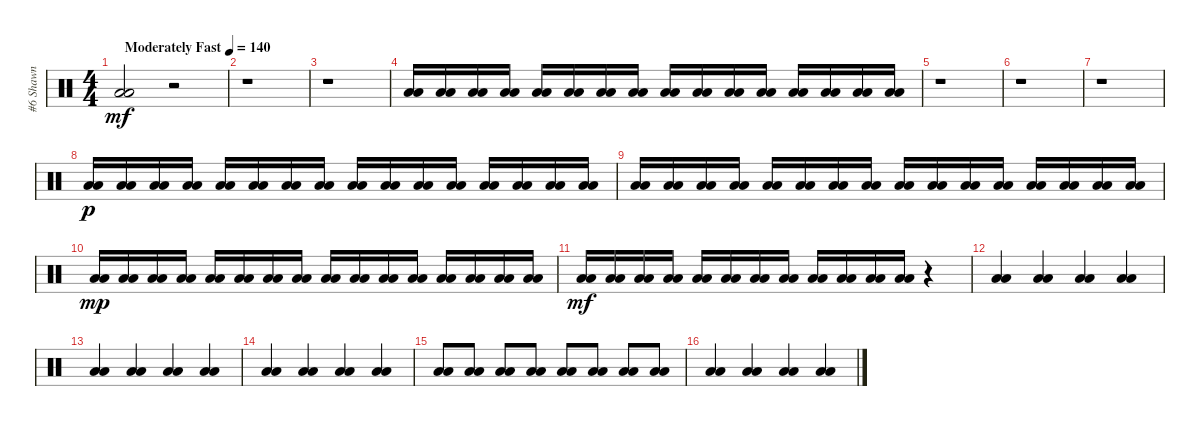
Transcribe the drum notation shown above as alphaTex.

\track ("#6 Shawn" "#6 Shawn") {solo instrument percussion}
\staff {score}
\articulation defaults
\ts (4 4)
\tempo (140 "Moderately Fast")
\clef neutral
\ks c
("Low Tom (hit)" "Low Floor Tom (hit)").2{dy mf} r.2 |
r.1 |
r.1 |
("Low Tom (hit)" "Low Tom (hit)").16 ("Low Floor Tom (hit)" "Low Floor Tom (hit)").16 ("Low Tom (hit)" "Low Tom (hit)").16 ("Low Floor Tom (hit)" "Low Floor Tom (hit)").16 ("Low Tom (hit)" "Low Tom (hit)").16 ("Low Floor Tom (hit)" "Low Floor Tom (hit)").16 ("Low Tom (hit)" "Low Tom (hit)").16 ("Low Floor Tom (hit)" "Low Floor Tom (hit)").16 ("Low Tom (hit)" "Low Tom (hit)").16 ("Low Floor Tom (hit)" "Low Floor Tom (hit)").16 ("Low Tom (hit)" "Low Tom (hit)").16 ("Low Floor Tom (hit)" "Low Floor Tom (hit)").16 ("Low Tom (hit)" "Low Tom (hit)").16 ("Low Floor Tom (hit)" "Low Floor Tom (hit)").16 ("Low Tom (hit)" "Low Tom (hit)").16 ("Low Floor Tom (hit)" "Low Floor Tom (hit)").16 |
r.1 |
r.1 |
r.1 |
("Low Tom (hit)" "Low Tom (hit)").16{dy p} ("Low Floor Tom (hit)" "Low Floor Tom (hit)").16 ("Low Tom (hit)" "Low Tom (hit)").16 ("Low Floor Tom (hit)" "Low Floor Tom (hit)").16 ("Low Tom (hit)" "Low Tom (hit)").16 ("Low Floor Tom (hit)" "Low Floor Tom (hit)").16 ("Low Tom (hit)" "Low Tom (hit)").16 ("Low Floor Tom (hit)" "Low Floor Tom (hit)").16 ("Low Tom (hit)" "Low Tom (hit)").16 ("Low Floor Tom (hit)" "Low Floor Tom (hit)").16 ("Low Tom (hit)" "Low Tom (hit)").16 ("Low Floor Tom (hit)" "Low Floor Tom (hit)").16 ("Low Tom (hit)" "Low Tom (hit)").16 ("Low Floor Tom (hit)" "Low Floor Tom (hit)").16 ("Low Tom (hit)" "Low Tom (hit)").16 ("Low Floor Tom (hit)" "Low Floor Tom (hit)").16 |
("Low Tom (hit)" "Low Tom (hit)").16 ("Low Floor Tom (hit)" "Low Floor Tom (hit)").16 ("Low Tom (hit)" "Low Tom (hit)").16 ("Low Floor Tom (hit)" "Low Floor Tom (hit)").16 ("Low Tom (hit)" "Low Tom (hit)").16 ("Low Floor Tom (hit)" "Low Floor Tom (hit)").16 ("Low Tom (hit)" "Low Tom (hit)").16 ("Low Floor Tom (hit)" "Low Floor Tom (hit)").16 ("Low Tom (hit)" "Low Tom (hit)").16 ("Low Floor Tom (hit)" "Low Floor Tom (hit)").16 ("Low Tom (hit)" "Low Tom (hit)").16 ("Low Floor Tom (hit)" "Low Floor Tom (hit)").16 ("Low Tom (hit)" "Low Tom (hit)").16 ("Low Floor Tom (hit)" "Low Floor Tom (hit)").16 ("Low Tom (hit)" "Low Tom (hit)").16 ("Low Floor Tom (hit)" "Low Floor Tom (hit)").16 |
("Low Tom (hit)" "Low Tom (hit)").16{dy mp} ("Low Floor Tom (hit)" "Low Floor Tom (hit)").16 ("Low Tom (hit)" "Low Tom (hit)").16 ("Low Floor Tom (hit)" "Low Floor Tom (hit)").16 ("Low Tom (hit)" "Low Tom (hit)").16 ("Low Floor Tom (hit)" "Low Floor Tom (hit)").16 ("Low Tom (hit)" "Low Tom (hit)").16 ("Low Floor Tom (hit)" "Low Floor Tom (hit)").16 ("Low Tom (hit)" "Low Tom (hit)").16 ("Low Floor Tom (hit)" "Low Floor Tom (hit)").16 ("Low Tom (hit)" "Low Tom (hit)").16 ("Low Floor Tom (hit)" "Low Floor Tom (hit)").16 ("Low Tom (hit)" "Low Tom (hit)").16 ("Low Floor Tom (hit)" "Low Floor Tom (hit)").16 ("Low Tom (hit)" "Low Tom (hit)").16 ("Low Floor Tom (hit)" "Low Floor Tom (hit)").16 |
("Low Tom (hit)" "Low Tom (hit)").16{dy mf} ("Low Floor Tom (hit)" "Low Floor Tom (hit)").16 ("Low Tom (hit)" "Low Tom (hit)").16 ("Low Floor Tom (hit)" "Low Floor Tom (hit)").16 ("Low Tom (hit)" "Low Tom (hit)").16 ("Low Floor Tom (hit)" "Low Floor Tom (hit)").16 ("Low Tom (hit)" "Low Tom (hit)").16 ("Low Floor Tom (hit)" "Low Floor Tom (hit)").16 ("Low Tom (hit)" "Low Tom (hit)").16 ("Low Floor Tom (hit)" "Low Floor Tom (hit)").16 ("Low Tom (hit)" "Low Tom (hit)").16 ("Low Floor Tom (hit)" "Low Floor Tom (hit)").16 r.4 |
("Low Floor Tom (hit)" "Low Floor Tom (hit)").4 ("Low Tom (hit)" "Low Tom (hit)").4 ("Low Floor Tom (hit)" "Low Floor Tom (hit)").4 ("Low Tom (hit)" "Low Tom (hit)").4 |
("Low Floor Tom (hit)" "Low Floor Tom (hit)").4 ("Low Tom (hit)" "Low Tom (hit)").4 ("Low Floor Tom (hit)" "Low Floor Tom (hit)").4 ("Low Tom (hit)" "Low Tom (hit)").4 |
("Low Floor Tom (hit)" "Low Floor Tom (hit)").4 ("Low Tom (hit)" "Low Tom (hit)").4 ("Low Floor Tom (hit)" "Low Floor Tom (hit)").4 ("Low Tom (hit)" "Low Tom (hit)").4 |
("Low Tom (hit)" "Low Floor Tom (hit)").8 ("Low Tom (hit)" "Low Floor Tom (hit)").8 ("Low Tom (hit)" "Low Floor Tom (hit)").8 ("Low Tom (hit)" "Low Floor Tom (hit)").8 ("Low Tom (hit)" "Low Floor Tom (hit)").8 ("Low Tom (hit)" "Low Floor Tom (hit)").8 ("Low Tom (hit)" "Low Floor Tom (hit)").8 ("Low Tom (hit)" "Low Floor Tom (hit)").8 |
("Low Floor Tom (hit)" "Low Floor Tom (hit)").4 ("Low Tom (hit)" "Low Tom (hit)").4 ("Low Floor Tom (hit)" "Low Floor Tom (hit)").4 ("Low Tom (hit)" "Low Tom (hit)").4
